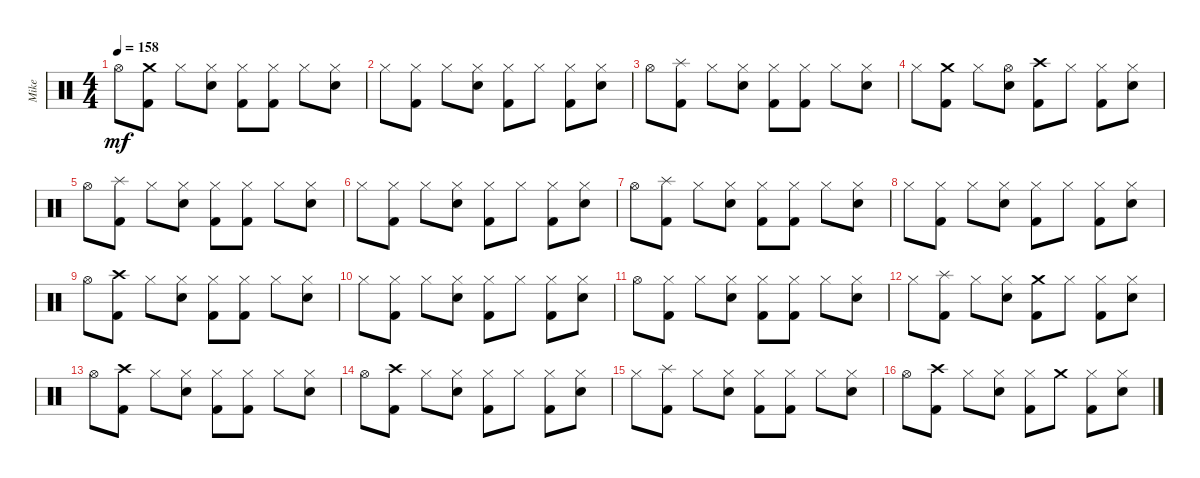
\track ("Mike" "Mike") {instrument percussion}
\staff {score}
\articulation defaults
\ts (4 4)
\tempo 158
\clef neutral
\ks c "Hi-Hat (open)".8{dy mf}
("Crash medium (hit)" "Kick (hit) 2").8 "Hi-Hat (closed)".8 ("Hi-Hat (closed)" "Electric Snare (hit)").8 ("Hi-Hat (closed)" "Kick (hit) 2").8 ("Hi-Hat (closed)" "Kick (hit) 2").8 "Hi-Hat (closed)".8 ("Hi-Hat (closed)" "Electric Snare (hit)").8 |
"Hi-Hat (closed)".8 ("Hi-Hat (closed)" "Kick (hit) 2").8 "Hi-Hat (closed)".8 ("Hi-Hat (closed)" "Electric Snare (hit)").8 ("Hi-Hat (closed)" "Kick (hit) 2").8 "Hi-Hat (closed)".8 ("Hi-Hat (closed)" "Kick (hit) 2").8 ("Hi-Hat (closed)" "Electric Snare (hit)").8 |
"Hi-Hat (open)".8 ("Splash (hit)" "Kick (hit) 2").8 "Hi-Hat (closed)".8 ("Hi-Hat (closed)" "Electric Snare (hit)").8 ("Hi-Hat (closed)" "Kick (hit) 2").8 ("Hi-Hat (closed)" "Kick (hit) 2").8 "Hi-Hat (closed)".8 ("Hi-Hat (closed)" "Electric Snare (hit)").8 |
"Hi-Hat (closed)".8 ("Crash medium (hit)" "Kick (hit) 2").8 "Hi-Hat (closed)".8 ("Hi-Hat (open)" "Electric Snare (hit)").8 ("Crash high (hit)" "Kick (hit) 2").8 "Hi-Hat (closed)".8 ("Hi-Hat (closed)" "Kick (hit) 2").8 ("Hi-Hat (closed)" "Electric Snare (hit)").8 |
"Hi-Hat (open)".8 ("Splash (hit)" "Kick (hit) 2").8 "Hi-Hat (closed)".8 ("Hi-Hat (closed)" "Electric Snare (hit)").8 ("Hi-Hat (closed)" "Kick (hit) 2").8 ("Hi-Hat (closed)" "Kick (hit) 2").8 "Hi-Hat (closed)".8 ("Hi-Hat (closed)" "Electric Snare (hit)").8 |
"Hi-Hat (closed)".8 ("Hi-Hat (closed)" "Kick (hit) 2").8 "Hi-Hat (closed)".8 ("Hi-Hat (closed)" "Electric Snare (hit)").8 ("Hi-Hat (closed)" "Kick (hit) 2").8 "Hi-Hat (closed)".8 ("Hi-Hat (closed)" "Kick (hit) 2").8 ("Hi-Hat (closed)" "Electric Snare (hit)").8 |
"Hi-Hat (open)".8 ("Splash (hit)" "Kick (hit) 2").8 "Hi-Hat (closed)".8 ("Hi-Hat (closed)" "Electric Snare (hit)").8 ("Hi-Hat (closed)" "Kick (hit) 2").8 ("Hi-Hat (closed)" "Kick (hit) 2").8 "Hi-Hat (closed)".8 ("Hi-Hat (closed)" "Electric Snare (hit)").8 |
"Hi-Hat (closed)".8 ("Hi-Hat (closed)" "Kick (hit) 2").8 "Hi-Hat (closed)".8 ("Hi-Hat (closed)" "Electric Snare (hit)").8 ("Hi-Hat (closed)" "Kick (hit) 2").8 "Hi-Hat (closed)".8 ("Hi-Hat (closed)" "Kick (hit) 2").8 ("Hi-Hat (closed)" "Electric Snare (hit)").8 |
"Hi-Hat (open)".8 ("Crash high (hit)" "Kick (hit) 2").8 "Hi-Hat (closed)".8 ("Hi-Hat (closed)" "Electric Snare (hit)").8 ("Hi-Hat (closed)" "Kick (hit) 2").8 ("Hi-Hat (closed)" "Kick (hit) 2").8 "Hi-Hat (closed)".8 ("Hi-Hat (closed)" "Electric Snare (hit)").8 |
"Hi-Hat (closed)".8 ("Hi-Hat (closed)" "Kick (hit) 2").8 "Hi-Hat (closed)".8 ("Hi-Hat (closed)" "Electric Snare (hit)").8 ("Hi-Hat (closed)" "Kick (hit) 2").8 "Hi-Hat (closed)".8 ("Hi-Hat (closed)" "Kick (hit) 2").8 ("Hi-Hat (closed)" "Electric Snare (hit)").8 |
"Hi-Hat (open)".8 ("Hi-Hat (closed)" "Kick (hit) 2").8 "Hi-Hat (closed)".8 ("Hi-Hat (closed)" "Electric Snare (hit)").8 ("Hi-Hat (closed)" "Kick (hit) 2").8 ("Hi-Hat (closed)" "Kick (hit) 2").8 "Hi-Hat (closed)".8 ("Hi-Hat (closed)" "Electric Snare (hit)").8 |
"Hi-Hat (closed)".8 ("Splash (hit)" "Kick (hit) 2").8 "Hi-Hat (closed)".8 ("Hi-Hat (closed)" "Electric Snare (hit)").8 ("Crash medium (hit)" "Kick (hit) 2").8 "Hi-Hat (closed)".8 ("Hi-Hat (closed)" "Kick (hit) 2").8 ("Hi-Hat (closed)" "Electric Snare (hit)").8 |
"Hi-Hat (open)".8 ("Crash high (hit)" "Kick (hit) 2").8 "Hi-Hat (closed)".8 ("Hi-Hat (closed)" "Electric Snare (hit)").8 ("Hi-Hat (closed)" "Kick (hit) 2").8 ("Hi-Hat (closed)" "Kick (hit) 2").8 "Hi-Hat (closed)".8 ("Hi-Hat (closed)" "Electric Snare (hit)").8 |
"Hi-Hat (open)".8 ("Crash high (hit)" "Kick (hit) 2").8 "Hi-Hat (closed)".8 ("Hi-Hat (closed)" "Electric Snare (hit)").8 ("Hi-Hat (closed)" "Kick (hit) 2").8 "Hi-Hat (closed)".8 ("Hi-Hat (closed)" "Kick (hit) 2").8 ("Hi-Hat (closed)" "Electric Snare (hit)").8 |
"Hi-Hat (closed)".8 ("Splash (hit)" "Kick (hit) 2").8 "Hi-Hat (closed)".8 ("Hi-Hat (closed)" "Electric Snare (hit)").8 ("Hi-Hat (closed)" "Kick (hit) 2").8 ("Hi-Hat (closed)" "Kick (hit) 2").8 "Hi-Hat (closed)".8 ("Hi-Hat (closed)" "Electric Snare (hit)").8 |
"Hi-Hat (open)".8 ("Crash high (hit)" "Kick (hit) 2").8 "Hi-Hat (closed)".8 ("Hi-Hat (closed)" "Electric Snare (hit)").8 ("Hi-Hat (closed)" "Kick (hit) 2").8 "Crash medium (hit)".8 ("Hi-Hat (closed)" "Kick (hit) 2").8 ("Hi-Hat (closed)" "Electric Snare (hit)").8
